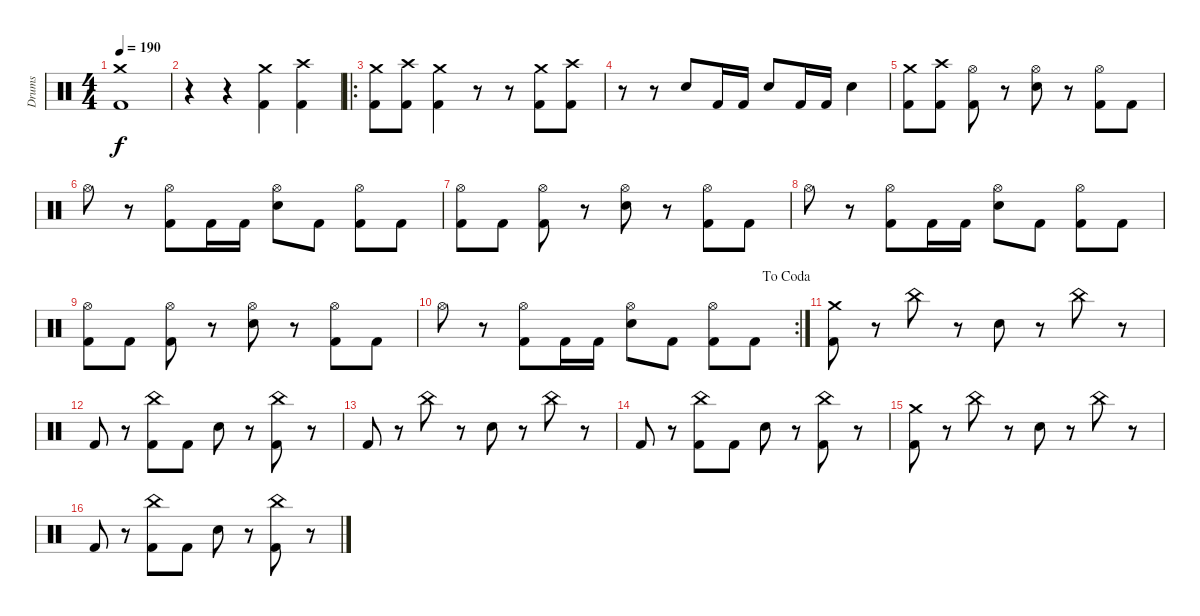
\track ("Drums" "Drums") {instrument percussion}
\staff {score}
\articulation defaults
\ts (4 4)
\tempo 190
\clef neutral
\ks c
("Crash medium (hit)" "Kick (hit) 2").1{dy f} |
r.4 r.4 ("Crash medium (hit)" "Kick (hit) 2").4 ("Crash high (hit)" "Kick (hit) 2").4 |
\ro
("Crash medium (hit)" "Kick (hit) 2").8 ("Crash high (hit)" "Kick (hit) 2").8 ("Crash medium (hit)" "Kick (hit) 2").4 r.8 r.8 ("Crash medium (hit)" "Kick (hit) 2").8 ("Crash high (hit)" "Kick (hit) 2").8 |
r.8 r.8 "Electric Snare (hit)".8 "Kick (hit) 2".16 "Kick (hit) 2".16 "Electric Snare (hit)".8 "Kick (hit) 2".16 "Kick (hit) 2".16 "Electric Snare (hit)".4 |
("Crash medium (hit)" "Kick (hit) 2").8 ("Crash high (hit)" "Kick (hit) 2").8 ("Hi-Hat (open)" "Kick (hit) 2").8 r.8 ("Hi-Hat (open)" "Electric Snare (hit)").8 r.8 ("Hi-Hat (open)" "Kick (hit) 2").8 "Kick (hit) 2".8 |
"Hi-Hat (open)".8 r.8 ("Hi-Hat (open)" "Kick (hit) 2").8 "Kick (hit) 2".16 "Kick (hit) 2".16 ("Hi-Hat (open)" "Electric Snare (hit)").8 "Kick (hit) 2".8 ("Hi-Hat (open)" "Kick (hit) 2").8 "Kick (hit) 2".8 |
("Hi-Hat (open)" "Kick (hit) 2").8 "Kick (hit) 2".8 ("Hi-Hat (open)" "Kick (hit) 2").8 r.8 ("Hi-Hat (open)" "Electric Snare (hit)").8 r.8 ("Hi-Hat (open)" "Kick (hit) 2").8 "Kick (hit) 2".8 |
"Hi-Hat (open)".8 r.8 ("Hi-Hat (open)" "Kick (hit) 2").8 "Kick (hit) 2".16 "Kick (hit) 2".16 ("Hi-Hat (open)" "Electric Snare (hit)").8 "Kick (hit) 2".8 ("Hi-Hat (open)" "Kick (hit) 2").8 "Kick (hit) 2".8 |
("Hi-Hat (open)" "Kick (hit) 2").8 "Kick (hit) 2".8 ("Hi-Hat (open)" "Kick (hit) 2").8 r.8 ("Hi-Hat (open)" "Electric Snare (hit)").8 r.8 ("Hi-Hat (open)" "Kick (hit) 2").8 "Kick (hit) 2".8 |
\rc 2
\jump dacoda "Hi-Hat (open)".8
r.8 ("Hi-Hat (open)" "Kick (hit) 2").8 "Kick (hit) 2".16 "Kick (hit) 2".16 ("Hi-Hat (open)" "Electric Snare (hit)").8 "Kick (hit) 2".8 ("Hi-Hat (open)" "Kick (hit) 2").8 "Kick (hit) 2".8 |
("Crash medium (hit)" "Kick (hit) 2").8 r.8 "China (hit)".8 r.8 "Electric Snare (hit)".8 r.8 "China (hit)".8 r.8 |
"Kick (hit) 2".8 r.8 ("China (hit)" "Kick (hit) 2").8 "Kick (hit) 2".8 "Electric Snare (hit)".8 r.8 ("China (hit)" "Kick (hit) 2").8 r.8 |
"Kick (hit) 2".8 r.8 "China (hit)".8 r.8 "Electric Snare (hit)".8 r.8 "China (hit)".8 r.8 |
"Kick (hit) 2".8 r.8 ("China (hit)" "Kick (hit) 2").8 "Kick (hit) 2".8 "Electric Snare (hit)".8 r.8 ("China (hit)" "Kick (hit) 2").8 r.8 |
("Crash medium (hit)" "Kick (hit) 2").8 r.8 "China (hit)".8 r.8 "Electric Snare (hit)".8 r.8 "China (hit)".8 r.8 |
"Kick (hit) 2".8 r.8 ("China (hit)" "Kick (hit) 2").8 "Kick (hit) 2".8 "Electric Snare (hit)".8 r.8 ("China (hit)" "Kick (hit) 2").8 r.8
